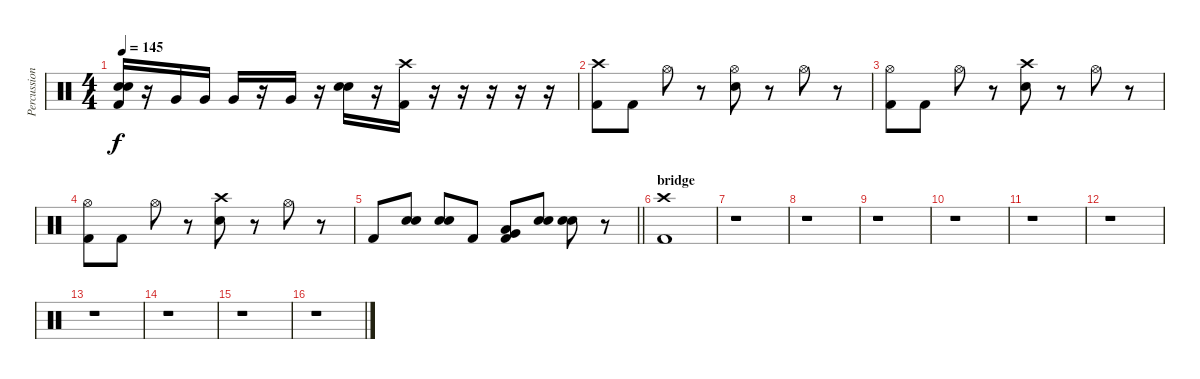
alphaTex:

\track ("Percussion" "Percussion") {instrument percussion}
\staff {score}
\articulation defaults
\ts (4 4)
\tempo 145
\clef neutral
\ks c
("Electric Snare (hit)" "Electric Snare (hit)" "Kick (hit) 2").16{dy f} r.16 "Very Low Tom (hit)".16 "Very Low Tom (hit)".16 "Very Low Tom (hit)".16 r.16 "Very Low Tom (hit)".16 r.16 ("Electric Snare (hit)" "Electric Snare (hit)").16 r.16 ("Crash high (hit)" "Kick (hit) 2").16 r.16 r.16 r.16 r.16 r.16 |
("Crash high (hit)" "Kick (hit) 2").8 "Kick (hit) 2".8 "Hi-Hat (open)".8 r.8 ("Hi-Hat (open)" "Electric Snare (hit)").8 r.8 "Hi-Hat (open)".8 r.8 |
("Hi-Hat (open)" "Kick (hit) 2").8 "Kick (hit) 2".8 "Hi-Hat (open)".8 r.8 ("Crash high (hit)" "Electric Snare (hit)").8 r.8 "Hi-Hat (open)".8 r.8 |
("Hi-Hat (open)" "Kick (hit) 2").8 "Kick (hit) 2".8 "Hi-Hat (open)".8 r.8 ("Crash high (hit)" "Electric Snare (hit)").8 r.8 "Hi-Hat (open)".8 r.8 |
\barLineRight lightlight "Kick (hit) 2".8
("Electric Snare (hit)" "Electric Snare (hit)").8 ("Electric Snare (hit)" "Electric Snare (hit)").8 "Kick (hit) 2".8 ("Very Low Tom (hit)" "Low Tom (hit)" "Kick (hit) 2").8 ("Electric Snare (hit)" "Electric Snare (hit)").8 ("Electric Snare (hit)" "Electric Snare (hit)").8 r.8 |
\section ("" "bridge")
("Crash high (hit)" "Kick (hit) 2").1 |
r.1 |
r.1 |
r.1 |
r.1 |
r.1 |
r.1 |
r.1 |
r.1 |
r.1 |
r.1
